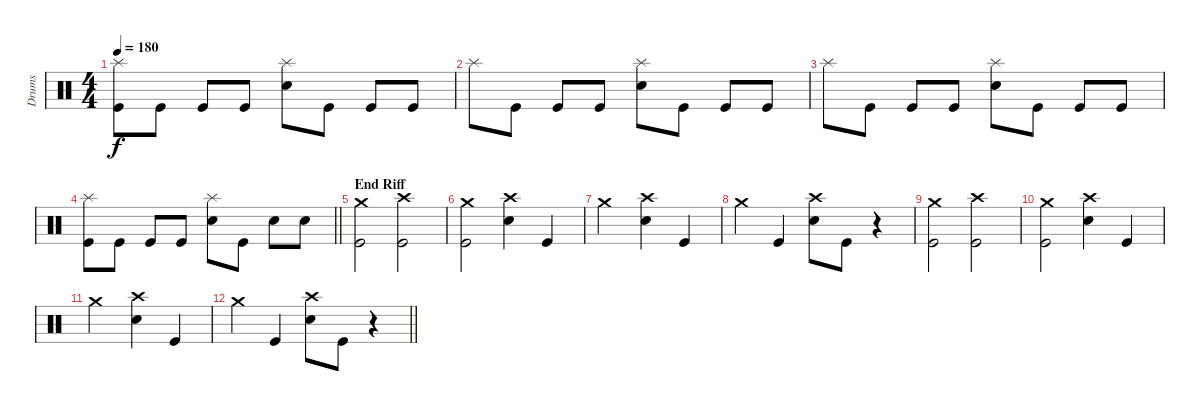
\track ("Drums" "Drums") {instrument percussion}
\staff {score}
\articulation defaults
\ts (4 4)
\tempo 180
\clef neutral
\ks c
("Splash (hit)" "Kick (hit)").8{dy f} "Kick (hit)".8 "Kick (hit)".8 "Kick (hit)".8 ("Splash (hit)" "Snare (hit) 2").8 "Kick (hit)".8 "Kick (hit)".8 "Kick (hit)".8 |
"Splash (hit)".8 "Kick (hit)".8 "Kick (hit)".8 "Kick (hit)".8 ("Splash (hit)" "Snare (hit) 2").8 "Kick (hit)".8 "Kick (hit)".8 "Kick (hit)".8 |
"Splash (hit)".8 "Kick (hit)".8 "Kick (hit)".8 "Kick (hit)".8 ("Splash (hit)" "Snare (hit) 2").8 "Kick (hit)".8 "Kick (hit)".8 "Kick (hit)".8 |
\barLineRight lightlight
("Splash (hit)" "Kick (hit)").8 "Kick (hit)".8 "Kick (hit)".8 "Kick (hit)".8 ("Splash (hit)" "Snare (hit) 2").8 "Kick (hit)".8 "Snare (hit) 2".8 "Snare (hit) 2".8 |
\section ("" "End Riff")
("Crash medium (hit)" "Kick (hit)").2 ("Crash high (hit)" "Kick (hit)").2 |
("Crash medium (hit)" "Kick (hit)").2 ("Crash high (hit)" "Snare (hit) 2").4 "Kick (hit)".4 |
"Crash medium (hit)".2 ("Crash high (hit)" "Snare (hit) 2").4 "Kick (hit)".4 |
"Crash medium (hit)".4 "Kick (hit)".4 ("Crash high (hit)" "Snare (hit) 2").8 "Kick (hit)".8 r.4 |
("Crash medium (hit)" "Kick (hit)").2 ("Crash high (hit)" "Kick (hit)").2 |
("Crash medium (hit)" "Kick (hit)").2 ("Crash high (hit)" "Snare (hit) 2").4 "Kick (hit)".4 |
"Crash medium (hit)".2 ("Crash high (hit)" "Snare (hit) 2").4 "Kick (hit)".4 |
\barLineRight lightlight "Crash medium (hit)".4 "Kick (hit)".4
("Crash high (hit)" "Snare (hit) 2").8 "Kick (hit)".8 r.4
